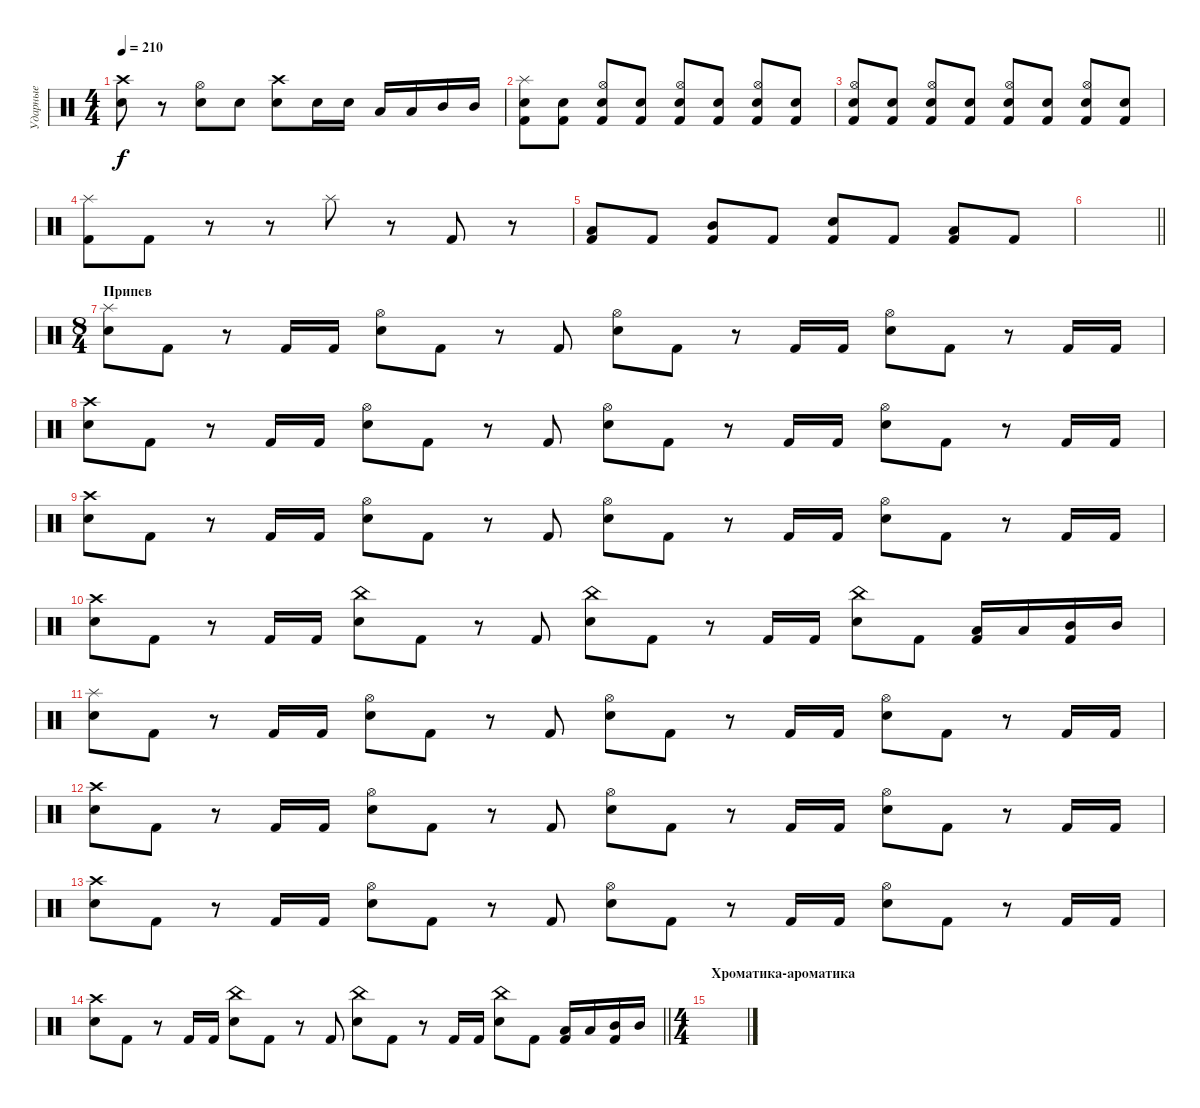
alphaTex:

\track ("Ударные" "Ударные") {instrument percussion}
\staff {score}
\articulation defaults
\ts (4 4)
\tempo 210
\clef neutral
\ks c
("Electric Snare (hit)" "Crash high (hit)").8{dy f} r.8 ("Electric Snare (hit)" "Hi-Hat (open)").8 "Electric Snare (hit)".8 ("Electric Snare (hit)" "Crash high (hit)").8 "Electric Snare (hit)".16 "Electric Snare (hit)".16 "Low Tom (hit)".16 "Low Tom (hit)".16 "Mid Tom (hit)".16 "Mid Tom (hit)".16 |
("Kick (hit) 2" "Electric Snare (hit)" "Splash (hit)").8 ("Kick (hit) 2" "Electric Snare (hit)").8 ("Kick (hit) 2" "Electric Snare (hit)" "Hi-Hat (open)").8 ("Kick (hit) 2" "Electric Snare (hit)").8 ("Kick (hit) 2" "Electric Snare (hit)" "Hi-Hat (open)").8 ("Kick (hit) 2" "Electric Snare (hit)").8 ("Kick (hit) 2" "Electric Snare (hit)" "Hi-Hat (open)").8 ("Kick (hit) 2" "Electric Snare (hit)").8 |
("Kick (hit) 2" "Electric Snare (hit)" "Hi-Hat (open)").8 ("Kick (hit) 2" "Electric Snare (hit)").8 ("Kick (hit) 2" "Electric Snare (hit)" "Hi-Hat (open)").8 ("Kick (hit) 2" "Electric Snare (hit)").8 ("Kick (hit) 2" "Electric Snare (hit)" "Hi-Hat (open)").8 ("Kick (hit) 2" "Electric Snare (hit)").8 ("Kick (hit) 2" "Electric Snare (hit)" "Hi-Hat (open)").8 ("Kick (hit) 2" "Electric Snare (hit)").8 |
("Kick (hit) 2" "Splash (hit)").8 "Kick (hit) 2".8 r.8 r.8 "Splash (hit)".8 r.8 "Kick (hit) 2".8 r.8 |
("Kick (hit) 2" "Low Tom (hit)").8 "Kick (hit) 2".8 ("Kick (hit) 2" "Mid Tom (hit)").8 "Kick (hit) 2".8 ("Kick (hit) 2" "Electric Snare (hit)").8 "Kick (hit) 2".8 ("Kick (hit) 2" "Low Tom (hit)").8 "Kick (hit) 2".8 |
\barLineRight lightlight
|
\ts (8 4)
\section ("" "Припев")
("Electric Snare (hit)" "Splash (hit)").8 "Kick (hit) 2".8 r.8 "Kick (hit) 2".16 "Kick (hit) 2".16 ("Electric Snare (hit)" "Hi-Hat (open)").8 "Kick (hit) 2".8 r.8 "Kick (hit) 2".8 ("Electric Snare (hit)" "Hi-Hat (open)").8 "Kick (hit) 2".8 r.8 "Kick (hit) 2".16 "Kick (hit) 2".16 ("Electric Snare (hit)" "Hi-Hat (open)").8 "Kick (hit) 2".8 r.8 "Kick (hit) 2".16 "Kick (hit) 2".16 |
("Electric Snare (hit)" "Crash high (hit)").8 "Kick (hit) 2".8 r.8 "Kick (hit) 2".16 "Kick (hit) 2".16 ("Electric Snare (hit)" "Hi-Hat (open)").8 "Kick (hit) 2".8 r.8 "Kick (hit) 2".8 ("Electric Snare (hit)" "Hi-Hat (open)").8 "Kick (hit) 2".8 r.8 "Kick (hit) 2".16 "Kick (hit) 2".16 ("Electric Snare (hit)" "Hi-Hat (open)").8 "Kick (hit) 2".8 r.8 "Kick (hit) 2".16 "Kick (hit) 2".16 |
("Electric Snare (hit)" "Crash high (hit)").8 "Kick (hit) 2".8 r.8 "Kick (hit) 2".16 "Kick (hit) 2".16 ("Electric Snare (hit)" "Hi-Hat (open)").8 "Kick (hit) 2".8 r.8 "Kick (hit) 2".8 ("Electric Snare (hit)" "Hi-Hat (open)").8 "Kick (hit) 2".8 r.8 "Kick (hit) 2".16 "Kick (hit) 2".16 ("Electric Snare (hit)" "Hi-Hat (open)").8 "Kick (hit) 2".8 r.8 "Kick (hit) 2".16 "Kick (hit) 2".16 |
("Electric Snare (hit)" "Crash high (hit)").8 "Kick (hit) 2".8 r.8 "Kick (hit) 2".16 "Kick (hit) 2".16 ("Electric Snare (hit)" "China (hit)").8 "Kick (hit) 2".8 r.8 "Kick (hit) 2".8 ("Electric Snare (hit)" "China (hit)").8 "Kick (hit) 2".8 r.8 "Kick (hit) 2".16 "Kick (hit) 2".16 ("Electric Snare (hit)" "China (hit)").8 "Kick (hit) 2".8 ("Kick (hit) 2" "Low Tom (hit)").16 "Low Tom (hit)".16 ("Kick (hit) 2" "Mid Tom (hit)").16 "Mid Tom (hit)".16 |
("Electric Snare (hit)" "Splash (hit)").8 "Kick (hit) 2".8 r.8 "Kick (hit) 2".16 "Kick (hit) 2".16 ("Electric Snare (hit)" "Hi-Hat (open)").8 "Kick (hit) 2".8 r.8 "Kick (hit) 2".8 ("Electric Snare (hit)" "Hi-Hat (open)").8 "Kick (hit) 2".8 r.8 "Kick (hit) 2".16 "Kick (hit) 2".16 ("Electric Snare (hit)" "Hi-Hat (open)").8 "Kick (hit) 2".8 r.8 "Kick (hit) 2".16 "Kick (hit) 2".16 |
("Electric Snare (hit)" "Crash high (hit)").8 "Kick (hit) 2".8 r.8 "Kick (hit) 2".16 "Kick (hit) 2".16 ("Electric Snare (hit)" "Hi-Hat (open)").8 "Kick (hit) 2".8 r.8 "Kick (hit) 2".8 ("Electric Snare (hit)" "Hi-Hat (open)").8 "Kick (hit) 2".8 r.8 "Kick (hit) 2".16 "Kick (hit) 2".16 ("Electric Snare (hit)" "Hi-Hat (open)").8 "Kick (hit) 2".8 r.8 "Kick (hit) 2".16 "Kick (hit) 2".16 |
("Electric Snare (hit)" "Crash high (hit)").8 "Kick (hit) 2".8 r.8 "Kick (hit) 2".16 "Kick (hit) 2".16 ("Electric Snare (hit)" "Hi-Hat (open)").8 "Kick (hit) 2".8 r.8 "Kick (hit) 2".8 ("Electric Snare (hit)" "Hi-Hat (open)").8 "Kick (hit) 2".8 r.8 "Kick (hit) 2".16 "Kick (hit) 2".16 ("Electric Snare (hit)" "Hi-Hat (open)").8 "Kick (hit) 2".8 r.8 "Kick (hit) 2".16 "Kick (hit) 2".16 |
\barLineRight lightlight
("Electric Snare (hit)" "Crash high (hit)").8 "Kick (hit) 2".8 r.8 "Kick (hit) 2".16 "Kick (hit) 2".16 ("Electric Snare (hit)" "China (hit)").8 "Kick (hit) 2".8 r.8 "Kick (hit) 2".8 ("Electric Snare (hit)" "China (hit)").8 "Kick (hit) 2".8 r.8 "Kick (hit) 2".16 "Kick (hit) 2".16 ("Electric Snare (hit)" "China (hit)").8 "Kick (hit) 2".8 ("Kick (hit) 2" "Low Tom (hit)").16 "Low Tom (hit)".16 ("Kick (hit) 2" "Mid Tom (hit)").16 "Mid Tom (hit)".16 |
\ts (4 4)
\section ("" "Хроматика-ароматика")
